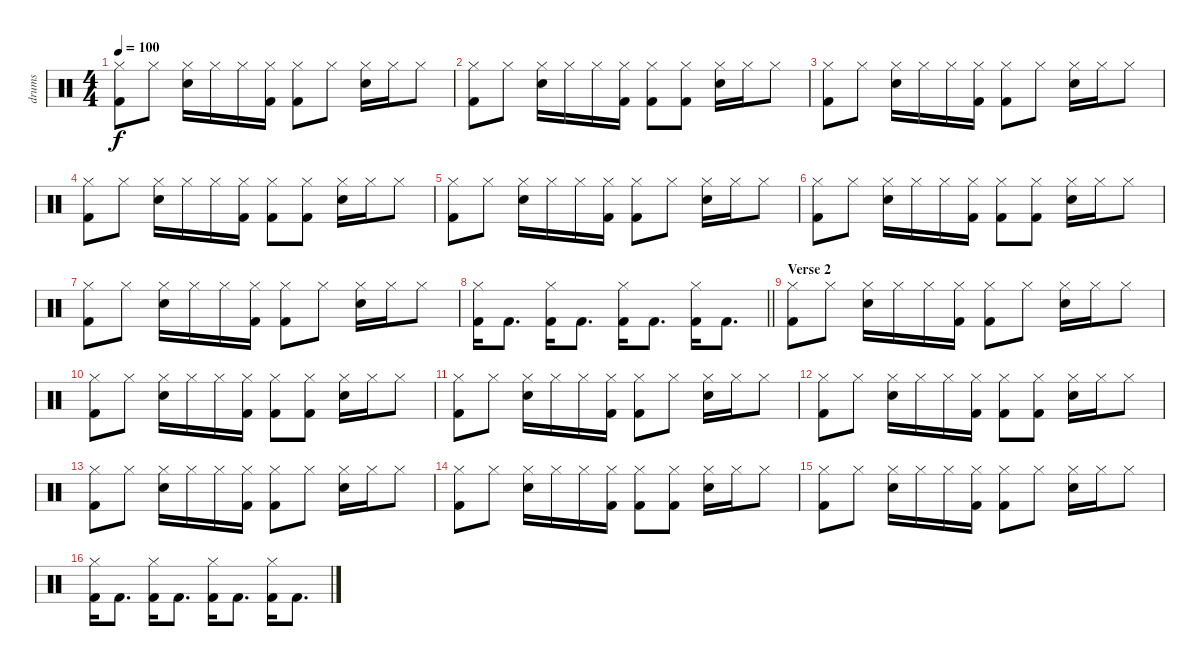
\track ("drums" "drums") {instrument percussion}
\staff {score}
\articulation defaults
\ts (4 4)
\tempo 100
\clef neutral
\ks c
("Hi-Hat (closed)" "Kick (hit) 2").8{dy f} "Hi-Hat (closed)".8 ("Electric Snare (hit)" "Hi-Hat (closed)").16 "Hi-Hat (closed)".16 "Hi-Hat (closed)".16 ("Hi-Hat (closed)" "Kick (hit) 2").16 ("Hi-Hat (closed)" "Kick (hit) 2").8 "Hi-Hat (closed)".8 ("Electric Snare (hit)" "Hi-Hat (closed)").16 "Hi-Hat (closed)".16 "Hi-Hat (closed)".8 |
("Hi-Hat (closed)" "Kick (hit) 2").8 "Hi-Hat (closed)".8 ("Electric Snare (hit)" "Hi-Hat (closed)").16 "Hi-Hat (closed)".16 "Hi-Hat (closed)".16 ("Hi-Hat (closed)" "Kick (hit) 2").16 ("Hi-Hat (closed)" "Kick (hit) 2").8 ("Hi-Hat (closed)" "Kick (hit) 2").8 ("Electric Snare (hit)" "Hi-Hat (closed)").16 "Hi-Hat (closed)".16 "Hi-Hat (closed)".8 |
("Hi-Hat (closed)" "Kick (hit) 2").8 "Hi-Hat (closed)".8 ("Electric Snare (hit)" "Hi-Hat (closed)").16 "Hi-Hat (closed)".16 "Hi-Hat (closed)".16 ("Hi-Hat (closed)" "Kick (hit) 2").16 ("Hi-Hat (closed)" "Kick (hit) 2").8 "Hi-Hat (closed)".8 ("Electric Snare (hit)" "Hi-Hat (closed)").16 "Hi-Hat (closed)".16 "Hi-Hat (closed)".8 |
("Hi-Hat (closed)" "Kick (hit) 2").8 "Hi-Hat (closed)".8 ("Electric Snare (hit)" "Hi-Hat (closed)").16 "Hi-Hat (closed)".16 "Hi-Hat (closed)".16 ("Hi-Hat (closed)" "Kick (hit) 2").16 ("Hi-Hat (closed)" "Kick (hit) 2").8 ("Hi-Hat (closed)" "Kick (hit) 2").8 ("Electric Snare (hit)" "Hi-Hat (closed)").16 "Hi-Hat (closed)".16 "Hi-Hat (closed)".8 |
("Hi-Hat (closed)" "Kick (hit) 2").8 "Hi-Hat (closed)".8 ("Electric Snare (hit)" "Hi-Hat (closed)").16 "Hi-Hat (closed)".16 "Hi-Hat (closed)".16 ("Hi-Hat (closed)" "Kick (hit) 2").16 ("Hi-Hat (closed)" "Kick (hit) 2").8 "Hi-Hat (closed)".8 ("Electric Snare (hit)" "Hi-Hat (closed)").16 "Hi-Hat (closed)".16 "Hi-Hat (closed)".8 |
("Hi-Hat (closed)" "Kick (hit) 2").8 "Hi-Hat (closed)".8 ("Electric Snare (hit)" "Hi-Hat (closed)").16 "Hi-Hat (closed)".16 "Hi-Hat (closed)".16 ("Hi-Hat (closed)" "Kick (hit) 2").16 ("Hi-Hat (closed)" "Kick (hit) 2").8 ("Hi-Hat (closed)" "Kick (hit) 2").8 ("Electric Snare (hit)" "Hi-Hat (closed)").16 "Hi-Hat (closed)".16 "Hi-Hat (closed)".8 |
("Hi-Hat (closed)" "Kick (hit) 2").8 "Hi-Hat (closed)".8 ("Electric Snare (hit)" "Hi-Hat (closed)").16 "Hi-Hat (closed)".16 "Hi-Hat (closed)".16 ("Hi-Hat (closed)" "Kick (hit) 2").16 ("Hi-Hat (closed)" "Kick (hit) 2").8 "Hi-Hat (closed)".8 ("Electric Snare (hit)" "Hi-Hat (closed)").16 "Hi-Hat (closed)".16 "Hi-Hat (closed)".8 |
\barLineRight lightlight
("Hi-Hat (closed)" "Kick (hit) 2").16 "Kick (hit) 2".8{d} ("Hi-Hat (closed)" "Kick (hit) 2").16 "Kick (hit) 2".8{d} ("Hi-Hat (closed)" "Kick (hit) 2").16 "Kick (hit) 2".8{d} ("Hi-Hat (closed)" "Kick (hit) 2").16 "Kick (hit) 2".8{d} |
\section ("" "Verse 2")
("Hi-Hat (closed)" "Kick (hit) 2").8 "Hi-Hat (closed)".8 ("Electric Snare (hit)" "Hi-Hat (closed)").16 "Hi-Hat (closed)".16 "Hi-Hat (closed)".16 ("Hi-Hat (closed)" "Kick (hit) 2").16 ("Hi-Hat (closed)" "Kick (hit) 2").8 "Hi-Hat (closed)".8 ("Electric Snare (hit)" "Hi-Hat (closed)").16 "Hi-Hat (closed)".16 "Hi-Hat (closed)".8 |
("Hi-Hat (closed)" "Kick (hit) 2").8 "Hi-Hat (closed)".8 ("Electric Snare (hit)" "Hi-Hat (closed)").16 "Hi-Hat (closed)".16 "Hi-Hat (closed)".16 ("Hi-Hat (closed)" "Kick (hit) 2").16 ("Hi-Hat (closed)" "Kick (hit) 2").8 ("Hi-Hat (closed)" "Kick (hit) 2").8 ("Electric Snare (hit)" "Hi-Hat (closed)").16 "Hi-Hat (closed)".16 "Hi-Hat (closed)".8 |
("Hi-Hat (closed)" "Kick (hit) 2").8 "Hi-Hat (closed)".8 ("Electric Snare (hit)" "Hi-Hat (closed)").16 "Hi-Hat (closed)".16 "Hi-Hat (closed)".16 ("Hi-Hat (closed)" "Kick (hit) 2").16 ("Hi-Hat (closed)" "Kick (hit) 2").8 "Hi-Hat (closed)".8 ("Electric Snare (hit)" "Hi-Hat (closed)").16 "Hi-Hat (closed)".16 "Hi-Hat (closed)".8 |
("Hi-Hat (closed)" "Kick (hit) 2").8 "Hi-Hat (closed)".8 ("Electric Snare (hit)" "Hi-Hat (closed)").16 "Hi-Hat (closed)".16 "Hi-Hat (closed)".16 ("Hi-Hat (closed)" "Kick (hit) 2").16 ("Hi-Hat (closed)" "Kick (hit) 2").8 ("Hi-Hat (closed)" "Kick (hit) 2").8 ("Electric Snare (hit)" "Hi-Hat (closed)").16 "Hi-Hat (closed)".16 "Hi-Hat (closed)".8 |
("Hi-Hat (closed)" "Kick (hit) 2").8 "Hi-Hat (closed)".8 ("Electric Snare (hit)" "Hi-Hat (closed)").16 "Hi-Hat (closed)".16 "Hi-Hat (closed)".16 ("Hi-Hat (closed)" "Kick (hit) 2").16 ("Hi-Hat (closed)" "Kick (hit) 2").8 "Hi-Hat (closed)".8 ("Electric Snare (hit)" "Hi-Hat (closed)").16 "Hi-Hat (closed)".16 "Hi-Hat (closed)".8 |
("Hi-Hat (closed)" "Kick (hit) 2").8 "Hi-Hat (closed)".8 ("Electric Snare (hit)" "Hi-Hat (closed)").16 "Hi-Hat (closed)".16 "Hi-Hat (closed)".16 ("Hi-Hat (closed)" "Kick (hit) 2").16 ("Hi-Hat (closed)" "Kick (hit) 2").8 ("Hi-Hat (closed)" "Kick (hit) 2").8 ("Electric Snare (hit)" "Hi-Hat (closed)").16 "Hi-Hat (closed)".16 "Hi-Hat (closed)".8 |
("Hi-Hat (closed)" "Kick (hit) 2").8 "Hi-Hat (closed)".8 ("Electric Snare (hit)" "Hi-Hat (closed)").16 "Hi-Hat (closed)".16 "Hi-Hat (closed)".16 ("Hi-Hat (closed)" "Kick (hit) 2").16 ("Hi-Hat (closed)" "Kick (hit) 2").8 "Hi-Hat (closed)".8 ("Electric Snare (hit)" "Hi-Hat (closed)").16 "Hi-Hat (closed)".16 "Hi-Hat (closed)".8 |
("Hi-Hat (closed)" "Kick (hit) 2").16 "Kick (hit) 2".8{d} ("Hi-Hat (closed)" "Kick (hit) 2").16 "Kick (hit) 2".8{d} ("Hi-Hat (closed)" "Kick (hit) 2").16 "Kick (hit) 2".8{d} ("Hi-Hat (closed)" "Kick (hit) 2").16 "Kick (hit) 2".8{d}
